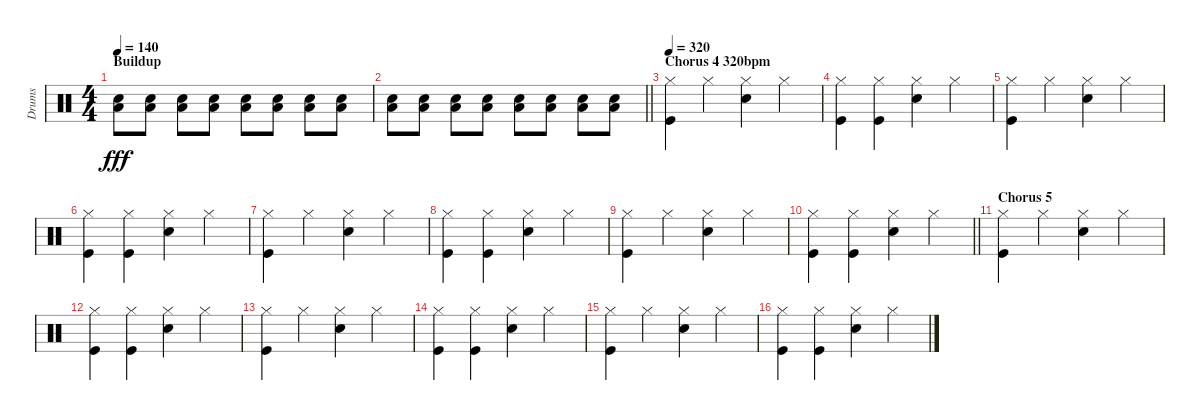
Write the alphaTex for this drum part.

\track ("Drums" "Drums") {instrument percussion}
\staff {score}
\articulation defaults
\ts (4 4)
\section ("" "Buildup")
\tempo 140
\clef neutral
\ks c
("Snare (hit) 2" "Low Floor Tom (hit)").8{dy fff} ("Snare (hit) 2" "Low Floor Tom (hit)").8 ("Snare (hit) 2" "Low Floor Tom (hit)").8 ("Snare (hit) 2" "Low Floor Tom (hit)").8 ("Snare (hit) 2" "Low Floor Tom (hit)").8 ("Snare (hit) 2" "Low Floor Tom (hit)").8 ("Snare (hit) 2" "Low Floor Tom (hit)").8 ("Snare (hit) 2" "Low Floor Tom (hit)").8 |
\barLineRight lightlight
("Snare (hit) 2" "Low Floor Tom (hit)").8 ("Snare (hit) 2" "Low Floor Tom (hit)").8 ("Snare (hit) 2" "Low Floor Tom (hit)").8 ("Snare (hit) 2" "Low Floor Tom (hit)").8 ("Snare (hit) 2" "Low Floor Tom (hit)").8 ("Snare (hit) 2" "Low Floor Tom (hit)").8 ("Snare (hit) 2" "Low Floor Tom (hit)").8 ("Snare (hit) 2" "Low Floor Tom (hit)").8 |
\section ("" "Chorus 4 320bpm")
\tempo 320
("Hi-Hat (closed)" "Kick (hit)").4 "Hi-Hat (closed)".4 ("Hi-Hat (closed)" "Snare (hit) 2").4 "Hi-Hat (closed)".4 |
("Hi-Hat (closed)" "Kick (hit)").4 ("Hi-Hat (closed)" "Kick (hit)").4 ("Hi-Hat (closed)" "Snare (hit) 2").4 "Hi-Hat (closed)".4 |
("Hi-Hat (closed)" "Kick (hit)").4 "Hi-Hat (closed)".4 ("Hi-Hat (closed)" "Snare (hit) 2").4 "Hi-Hat (closed)".4 |
("Hi-Hat (closed)" "Kick (hit)").4 ("Hi-Hat (closed)" "Kick (hit)").4 ("Hi-Hat (closed)" "Snare (hit) 2").4 "Hi-Hat (closed)".4 |
("Hi-Hat (closed)" "Kick (hit)").4 "Hi-Hat (closed)".4 ("Hi-Hat (closed)" "Snare (hit) 2").4 "Hi-Hat (closed)".4 |
("Hi-Hat (closed)" "Kick (hit)").4 ("Hi-Hat (closed)" "Kick (hit)").4 ("Hi-Hat (closed)" "Snare (hit) 2").4 "Hi-Hat (closed)".4 |
("Hi-Hat (closed)" "Kick (hit)").4 "Hi-Hat (closed)".4 ("Hi-Hat (closed)" "Snare (hit) 2").4 "Hi-Hat (closed)".4 |
\barLineRight lightlight
("Hi-Hat (closed)" "Kick (hit)").4 ("Hi-Hat (closed)" "Kick (hit)").4 ("Hi-Hat (closed)" "Snare (hit) 2").4 "Hi-Hat (closed)".4 |
\section ("" "Chorus 5")
("Hi-Hat (closed)" "Kick (hit)").4 "Hi-Hat (closed)".4 ("Hi-Hat (closed)" "Snare (hit) 2").4 "Hi-Hat (closed)".4 |
("Hi-Hat (closed)" "Kick (hit)").4 ("Hi-Hat (closed)" "Kick (hit)").4 ("Hi-Hat (closed)" "Snare (hit) 2").4 "Hi-Hat (closed)".4 |
("Hi-Hat (closed)" "Kick (hit)").4 "Hi-Hat (closed)".4 ("Hi-Hat (closed)" "Snare (hit) 2").4 "Hi-Hat (closed)".4 |
("Hi-Hat (closed)" "Kick (hit)").4 ("Hi-Hat (closed)" "Kick (hit)").4 ("Hi-Hat (closed)" "Snare (hit) 2").4 "Hi-Hat (closed)".4 |
("Hi-Hat (closed)" "Kick (hit)").4 "Hi-Hat (closed)".4 ("Hi-Hat (closed)" "Snare (hit) 2").4 "Hi-Hat (closed)".4 |
("Hi-Hat (closed)" "Kick (hit)").4 ("Hi-Hat (closed)" "Kick (hit)").4 ("Hi-Hat (closed)" "Snare (hit) 2").4 "Hi-Hat (closed)".4
